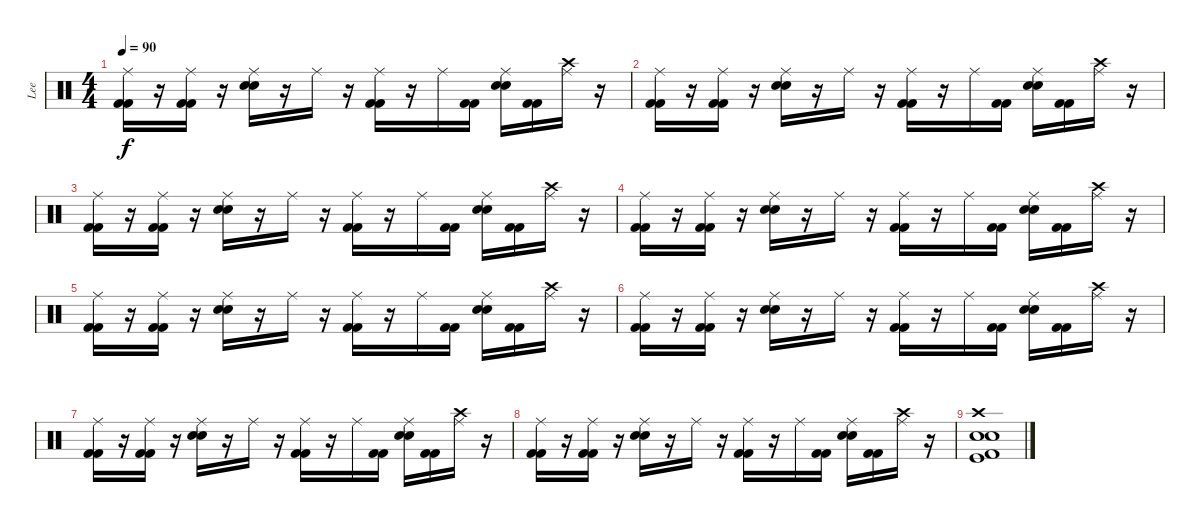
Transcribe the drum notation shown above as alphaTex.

\track ("Lee" "Lee") {instrument percussion}
\staff {score}
\articulation defaults
\ts (4 4)
\tempo 90
\clef neutral
\ks c
("Kick (hit) 2" "Kick (hit) 2" "Ride (middle)").16{dy f} r.16 ("Kick (hit) 2" "Kick (hit) 2" "Ride (middle)").16 r.16 ("Snare (hit) 2" "Snare (hit) 2" "Ride (middle)").16 r.16 "Ride (middle)".16 r.16 ("Kick (hit) 2" "Kick (hit) 2" "Ride (middle)").16 r.16 "Ride (middle)".16 ("Kick (hit) 2" "Kick (hit) 2").16 ("Snare (hit) 2" "Snare (hit) 2" "Ride (middle)").16 ("Kick (hit) 2" "Kick (hit) 2").16 ("Crash high (hit)" "Ride (middle)").16 r.16 |
("Kick (hit) 2" "Kick (hit) 2" "Ride (middle)").16 r.16 ("Kick (hit) 2" "Kick (hit) 2" "Ride (middle)").16 r.16 ("Snare (hit) 2" "Snare (hit) 2" "Ride (middle)").16 r.16 "Ride (middle)".16 r.16 ("Kick (hit) 2" "Kick (hit) 2" "Ride (middle)").16 r.16 "Ride (middle)".16 ("Kick (hit) 2" "Kick (hit) 2").16 ("Snare (hit) 2" "Snare (hit) 2" "Ride (middle)").16 ("Kick (hit) 2" "Kick (hit) 2").16 ("Crash high (hit)" "Ride (middle)").16 r.16 |
("Kick (hit) 2" "Kick (hit) 2" "Ride (middle)").16 r.16 ("Kick (hit) 2" "Kick (hit) 2" "Ride (middle)").16 r.16 ("Snare (hit) 2" "Snare (hit) 2" "Ride (middle)").16 r.16 "Ride (middle)".16 r.16 ("Kick (hit) 2" "Kick (hit) 2" "Ride (middle)").16 r.16 "Ride (middle)".16 ("Kick (hit) 2" "Kick (hit) 2").16 ("Snare (hit) 2" "Snare (hit) 2" "Ride (middle)").16 ("Kick (hit) 2" "Kick (hit) 2").16 ("Crash high (hit)" "Ride (middle)").16 r.16 |
("Kick (hit) 2" "Kick (hit) 2" "Ride (middle)").16 r.16 ("Kick (hit) 2" "Kick (hit) 2" "Ride (middle)").16 r.16 ("Snare (hit) 2" "Snare (hit) 2" "Ride (middle)").16 r.16 "Ride (middle)".16 r.16 ("Kick (hit) 2" "Kick (hit) 2" "Ride (middle)").16 r.16 "Ride (middle)".16 ("Kick (hit) 2" "Kick (hit) 2").16 ("Snare (hit) 2" "Snare (hit) 2" "Ride (middle)").16 ("Kick (hit) 2" "Kick (hit) 2").16 ("Crash high (hit)" "Ride (middle)").16 r.16 |
("Kick (hit) 2" "Kick (hit) 2" "Ride (middle)").16 r.16 ("Kick (hit) 2" "Kick (hit) 2" "Ride (middle)").16 r.16 ("Snare (hit) 2" "Snare (hit) 2" "Ride (middle)").16 r.16 "Ride (middle)".16 r.16 ("Kick (hit) 2" "Kick (hit) 2" "Ride (middle)").16 r.16 "Ride (middle)".16 ("Kick (hit) 2" "Kick (hit) 2").16 ("Snare (hit) 2" "Snare (hit) 2" "Ride (middle)").16 ("Kick (hit) 2" "Kick (hit) 2").16 ("Crash high (hit)" "Ride (middle)").16 r.16 |
("Kick (hit) 2" "Kick (hit) 2" "Ride (middle)").16 r.16 ("Kick (hit) 2" "Kick (hit) 2" "Ride (middle)").16 r.16 ("Snare (hit) 2" "Snare (hit) 2" "Ride (middle)").16 r.16 "Ride (middle)".16 r.16 ("Kick (hit) 2" "Kick (hit) 2" "Ride (middle)").16 r.16 "Ride (middle)".16 ("Kick (hit) 2" "Kick (hit) 2").16 ("Snare (hit) 2" "Snare (hit) 2" "Ride (middle)").16 ("Kick (hit) 2" "Kick (hit) 2").16 ("Crash high (hit)" "Ride (middle)").16 r.16 |
("Kick (hit) 2" "Kick (hit) 2" "Ride (middle)").16 r.16 ("Kick (hit) 2" "Kick (hit) 2" "Ride (middle)").16 r.16 ("Snare (hit) 2" "Snare (hit) 2" "Ride (middle)").16 r.16 "Ride (middle)".16 r.16 ("Kick (hit) 2" "Kick (hit) 2" "Ride (middle)").16 r.16 "Ride (middle)".16 ("Kick (hit) 2" "Kick (hit) 2").16 ("Snare (hit) 2" "Snare (hit) 2" "Ride (middle)").16 ("Kick (hit) 2" "Kick (hit) 2").16 ("Crash high (hit)" "Ride (middle)").16 r.16 |
("Kick (hit) 2" "Kick (hit) 2" "Ride (middle)").16 r.16 ("Kick (hit) 2" "Kick (hit) 2" "Ride (middle)").16 r.16 ("Snare (hit) 2" "Snare (hit) 2" "Ride (middle)").16 r.16 "Ride (middle)".16 r.16 ("Kick (hit) 2" "Kick (hit) 2" "Ride (middle)").16 r.16 "Ride (middle)".16 ("Kick (hit) 2" "Kick (hit) 2").16 ("Snare (hit) 2" "Snare (hit) 2" "Ride (middle)").16 ("Kick (hit) 2" "Kick (hit) 2").16 ("Crash high (hit)" "Ride (middle)").16 r.16 |
("Kick (hit)" "Snare (hit) 2" "Electric Snare (hit)" "Crash high (hit)" "Kick (hit) 2").1
